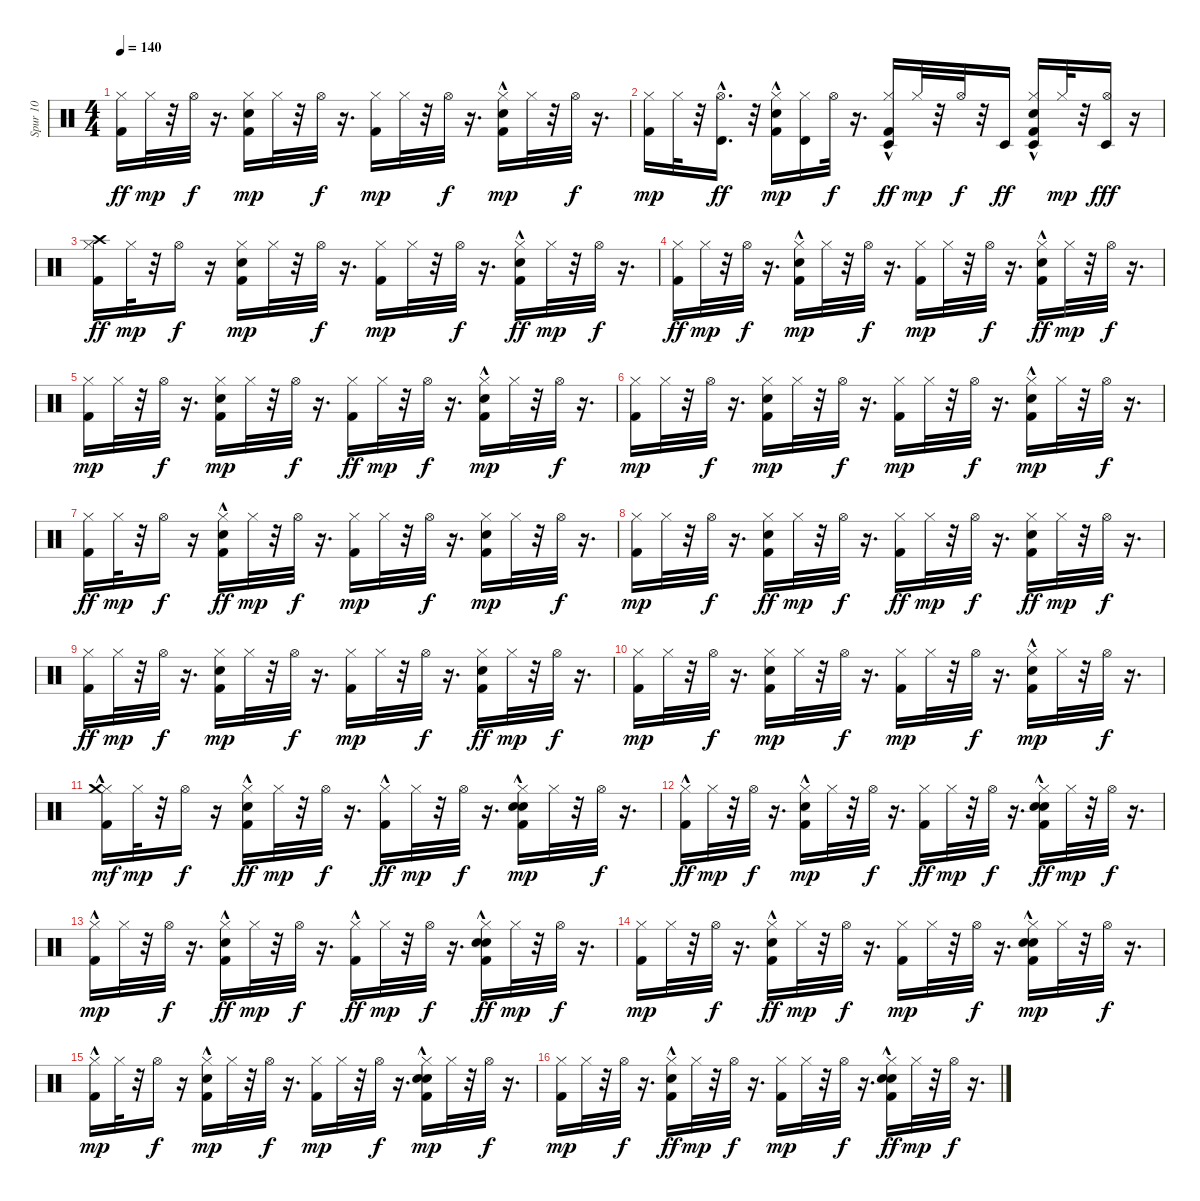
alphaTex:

\track ("Spur 10" "Spur 10") {instrument percussion}
\staff {score}
\articulation defaults
\ts (4 4)
\tempo 140
\clef neutral
\ks c
("Hi-Hat (closed)" "Kick (hit) 2").16{dy ff} "Hi-Hat (closed)".32{dy mp} r.32 "Hi-Hat (open)".32{dy f} r.16{d} ("Electric Snare (hit)" "Kick (hit) 2" "Hi-Hat (closed)").16{dy mp} "Hi-Hat (closed)".32 r.32 "Hi-Hat (open)".32{dy f} r.16{d} ("Kick (hit) 2" "Hi-Hat (closed)").16{dy mp} "Hi-Hat (closed)".32 r.32 "Hi-Hat (open)".32{dy f} r.16{d} ("Electric Snare (hit)"{hac} "Kick (hit) 2" "Hi-Hat (closed)").16{dy mp} "Hi-Hat (closed)".32 r.32 "Hi-Hat (open)".32{dy f} r.16{d} |
("Kick (hit) 2" "Hi-Hat (closed)").16{dy mp} "Hi-Hat (closed)".32 r.32 ("Hi-Hat (open)" "Timbale high (hit)"{hac}).16{d dy ff} r.32 ("Kick (hit) 2" "Hi-Hat (closed)" "Electric Snare (hit)"{hac}).16{dy mp} ("Timbale high (hit)" "Hi-Hat (closed)").16 "Hi-Hat (open)".32{dy f} r.16{d} ("Kick (hit) 2" "Hi-Hat (closed)" "Timbale low (hit)"{hac}).16{dy ff} "Hi-Hat (closed)".32{dy mp} r.32 "Hi-Hat (open)".32{dy f} r.32 "Timbale low (hit)".16{dy ff} ("Hi-Hat (closed)" "Electric Snare (hit)"{hac} "Timbale low (hit)" "Kick (hit) 2").16 "Hi-Hat (closed)".32{dy mp} r.32 ("Timbale low (hit)" "Hi-Hat (open)").16{dy fff} r.16 |
("Hi-Hat (closed)" "Crash high (hit)" "Kick (hit) 2").16{dy ff} "Hi-Hat (closed)".32{dy mp} r.32 "Hi-Hat (open)".16{dy f} r.16 ("Electric Snare (hit)" "Kick (hit) 2" "Hi-Hat (closed)").16{dy mp} "Hi-Hat (closed)".32 r.32 "Hi-Hat (open)".32{dy f} r.16{d} ("Kick (hit) 2" "Hi-Hat (closed)").16{dy mp} "Hi-Hat (closed)".32 r.32 "Hi-Hat (open)".32{dy f} r.16{d} ("Electric Snare (hit)"{hac} "Hi-Hat (closed)" "Kick (hit) 2").16{dy ff} "Hi-Hat (closed)".32{dy mp} r.32 "Hi-Hat (open)".32{dy f} r.16{d} |
("Hi-Hat (closed)" "Kick (hit) 2").16{dy ff} "Hi-Hat (closed)".32{dy mp} r.32 "Hi-Hat (open)".32{dy f} r.16{d} ("Kick (hit) 2" "Electric Snare (hit)"{hac} "Hi-Hat (closed)").16{dy mp} "Hi-Hat (closed)".32 r.32 "Hi-Hat (open)".32{dy f} r.16{d} ("Kick (hit) 2" "Hi-Hat (closed)").16{dy mp} "Hi-Hat (closed)".32 r.32 "Hi-Hat (open)".32{dy f} r.16{d} ("Electric Snare (hit)"{hac} "Hi-Hat (closed)" "Kick (hit) 2").16{dy ff} "Hi-Hat (closed)".32{dy mp} r.32 "Hi-Hat (open)".32{dy f} r.16{d} |
("Kick (hit) 2" "Hi-Hat (closed)").16{dy mp} "Hi-Hat (closed)".32 r.32 "Hi-Hat (open)".32{dy f} r.16{d} ("Kick (hit) 2" "Electric Snare (hit)" "Hi-Hat (closed)").16{dy mp} "Hi-Hat (closed)".32 r.32 "Hi-Hat (open)".32{dy f} r.16{d} ("Hi-Hat (closed)" "Kick (hit) 2").16{dy ff} "Hi-Hat (closed)".32{dy mp} r.32 "Hi-Hat (open)".32{dy f} r.16{d} ("Kick (hit) 2" "Hi-Hat (closed)" "Electric Snare (hit)"{hac}).16{dy mp} "Hi-Hat (closed)".32 r.32 "Hi-Hat (open)".32{dy f} r.16{d} |
("Kick (hit) 2" "Hi-Hat (closed)").16{dy mp} "Hi-Hat (closed)".32 r.32 "Hi-Hat (open)".32{dy f} r.16{d} ("Kick (hit) 2" "Electric Snare (hit)" "Hi-Hat (closed)").16{dy mp} "Hi-Hat (closed)".32 r.32 "Hi-Hat (open)".32{dy f} r.16{d} ("Kick (hit) 2" "Hi-Hat (closed)").16{dy mp} "Hi-Hat (closed)".32 r.32 "Hi-Hat (open)".32{dy f} r.16{d} ("Electric Snare (hit)"{hac} "Kick (hit) 2" "Hi-Hat (closed)").16{dy mp} "Hi-Hat (closed)".32 r.32 "Hi-Hat (open)".32{dy f} r.16{d} |
("Hi-Hat (closed)" "Kick (hit) 2").16{dy ff} "Hi-Hat (closed)".32{dy mp} r.32 "Hi-Hat (open)".16{dy f} r.16 ("Hi-Hat (closed)" "Kick (hit) 2" "Electric Snare (hit)"{hac}).16{dy ff} "Hi-Hat (closed)".32{dy mp} r.32 "Hi-Hat (open)".32{dy f} r.16{d} ("Kick (hit) 2" "Hi-Hat (closed)").16{dy mp} "Hi-Hat (closed)".32 r.32 "Hi-Hat (open)".32{dy f} r.16{d} ("Kick (hit) 2" "Electric Snare (hit)" "Hi-Hat (closed)").16{dy mp} "Hi-Hat (closed)".32 r.32 "Hi-Hat (open)".32{dy f} r.16{d} |
("Kick (hit) 2" "Hi-Hat (closed)").16{dy mp} "Hi-Hat (closed)".32 r.32 "Hi-Hat (open)".32{dy f} r.16{d} ("Electric Snare (hit)" "Hi-Hat (closed)" "Kick (hit) 2").16{dy ff} "Hi-Hat (closed)".32{dy mp} r.32 "Hi-Hat (open)".32{dy f} r.16{d} ("Hi-Hat (closed)" "Kick (hit) 2").16{dy ff} "Hi-Hat (closed)".32{dy mp} r.32 "Hi-Hat (open)".32{dy f} r.16{d} ("Hi-Hat (closed)" "Kick (hit) 2" "Electric Snare (hit)").16{dy ff} "Hi-Hat (closed)".32{dy mp} r.32 "Hi-Hat (open)".32{dy f} r.16{d} |
("Hi-Hat (closed)" "Kick (hit) 2").16{dy ff} "Hi-Hat (closed)".32{dy mp} r.32 "Hi-Hat (open)".32{dy f} r.16{d} ("Kick (hit) 2" "Electric Snare (hit)" "Hi-Hat (closed)").16{dy mp} "Hi-Hat (closed)".32 r.32 "Hi-Hat (open)".32{dy f} r.16{d} ("Kick (hit) 2" "Hi-Hat (closed)").16{dy mp} "Hi-Hat (closed)".32 r.32 "Hi-Hat (open)".32{dy f} r.16{d} ("Hi-Hat (closed)" "Kick (hit) 2" "Electric Snare (hit)").16{dy ff} "Hi-Hat (closed)".32{dy mp} r.32 "Hi-Hat (open)".32{dy f} r.16{d} |
("Kick (hit) 2" "Hi-Hat (closed)").16{dy mp} "Hi-Hat (closed)".32 r.32 "Hi-Hat (open)".32{dy f} r.16{d} ("Kick (hit) 2" "Hi-Hat (closed)" "Electric Snare (hit)").16{dy mp} "Hi-Hat (closed)".32 r.32 "Hi-Hat (open)".32{dy f} r.16{d} ("Kick (hit) 2" "Hi-Hat (closed)").16{dy mp} "Hi-Hat (closed)".32 r.32 "Hi-Hat (open)".32{dy f} r.16{d} ("Kick (hit) 2" "Electric Snare (hit)"{hac} "Hi-Hat (closed)").16{dy mp} "Hi-Hat (closed)".32 r.32 "Hi-Hat (open)".32{dy f} r.16{d} |
("Kick (hit) 2"{hac} "Hi-Hat (closed)" "Crash medium (hit)").16{dy mf} "Hi-Hat (closed)".32{dy mp} r.32 "Hi-Hat (open)".16{dy f} r.16 ("Electric Snare (hit)"{hac} "Hi-Hat (closed)" "Kick (hit) 2"{hac}).16{dy ff} "Hi-Hat (closed)".32{dy mp} r.32 "Hi-Hat (open)".32{dy f} r.16{d} ("Hi-Hat (closed)" "Kick (hit) 2"{hac}).16{dy ff} "Hi-Hat (closed)".32{dy mp} r.32 "Hi-Hat (open)".32{dy f} r.16{d} ("Kick (hit) 2"{hac} "Hi-Hat (closed)" "Snare (hit) 2" "Electric Snare (hit)").16{dy mp} "Hi-Hat (closed)".32 r.32 "Hi-Hat (open)".32{dy f} r.16{d} |
("Hi-Hat (closed)" "Kick (hit) 2"{hac}).16{dy ff} "Hi-Hat (closed)".32{dy mp} r.32 "Hi-Hat (open)".32{dy f} r.16{d} ("Electric Snare (hit)"{hac} "Kick (hit) 2"{hac} "Hi-Hat (closed)").16{dy mp} "Hi-Hat (closed)".32 r.32 "Hi-Hat (open)".32{dy f} r.16{d} ("Hi-Hat (closed)" "Kick (hit) 2").16{dy ff} "Hi-Hat (closed)".32{dy mp} r.32 "Hi-Hat (open)".32{dy f} r.16{d} ("Snare (hit) 2" "Hi-Hat (closed)" "Electric Snare (hit)"{hac} "Kick (hit) 2"{hac}).16{dy ff} "Hi-Hat (closed)".32{dy mp} r.32 "Hi-Hat (open)".32{dy f} r.16{d} |
("Kick (hit) 2"{hac} "Hi-Hat (closed)").16{dy mp} "Hi-Hat (closed)".32 r.32 "Hi-Hat (open)".32{dy f} r.16{d} ("Electric Snare (hit)" "Hi-Hat (closed)" "Kick (hit) 2"{hac}).16{dy ff} "Hi-Hat (closed)".32{dy mp} r.32 "Hi-Hat (open)".32{dy f} r.16{d} ("Hi-Hat (closed)" "Kick (hit) 2"{hac}).16{dy ff} "Hi-Hat (closed)".32{dy mp} r.32 "Hi-Hat (open)".32{dy f} r.16{d} ("Hi-Hat (closed)" "Snare (hit) 2" "Kick (hit) 2" "Electric Snare (hit)"{hac}).16{dy ff} "Hi-Hat (closed)".32{dy mp} r.32 "Hi-Hat (open)".32{dy f} r.16{d} |
("Kick (hit) 2" "Hi-Hat (closed)").16{dy mp} "Hi-Hat (closed)".32 r.32 "Hi-Hat (open)".32{dy f} r.16{d} ("Hi-Hat (closed)" "Kick (hit) 2" "Electric Snare (hit)"{hac}).16{dy ff} "Hi-Hat (closed)".32{dy mp} r.32 "Hi-Hat (open)".32{dy f} r.16{d} ("Kick (hit) 2" "Hi-Hat (closed)").16{dy mp} "Hi-Hat (closed)".32 r.32 "Hi-Hat (open)".32{dy f} r.16{d} ("Kick (hit) 2"{hac} "Hi-Hat (closed)" "Electric Snare (hit)"{hac} "Snare (hit) 2").16{dy mp} "Hi-Hat (closed)".32 r.32 "Hi-Hat (open)".32{dy f} r.16{d} |
("Kick (hit) 2"{hac} "Hi-Hat (closed)").16{dy mp} "Hi-Hat (closed)".32 r.32 "Hi-Hat (open)".16{dy f} r.16 ("Kick (hit) 2"{hac} "Hi-Hat (closed)" "Electric Snare (hit)"{hac}).16{dy mp} "Hi-Hat (closed)".32 r.32 "Hi-Hat (open)".32{dy f} r.16{d} ("Kick (hit) 2" "Hi-Hat (closed)").16{dy mp} "Hi-Hat (closed)".32 r.32 "Hi-Hat (open)".32{dy f} r.16{d} ("Electric Snare (hit)"{hac} "Kick (hit) 2"{hac} "Hi-Hat (closed)" "Snare (hit) 2").16{dy mp} "Hi-Hat (closed)".32 r.32 "Hi-Hat (open)".32{dy f} r.16{d} |
("Kick (hit) 2" "Hi-Hat (closed)").16{dy mp} "Hi-Hat (closed)".32 r.32 "Hi-Hat (open)".32{dy f} r.16{d} ("Electric Snare (hit)"{hac} "Hi-Hat (closed)" "Kick (hit) 2").16{dy ff} "Hi-Hat (closed)".32{dy mp} r.32 "Hi-Hat (open)".32{dy f} r.16{d} ("Kick (hit) 2" "Hi-Hat (closed)").16{dy mp} "Hi-Hat (closed)".32 r.32 "Hi-Hat (open)".32{dy f} r.16{d} ("Electric Snare (hit)"{hac} "Snare (hit) 2" "Hi-Hat (closed)" "Kick (hit) 2").16{dy ff} "Hi-Hat (closed)".32{dy mp} r.32 "Hi-Hat (open)".32{dy f} r.16{d}
